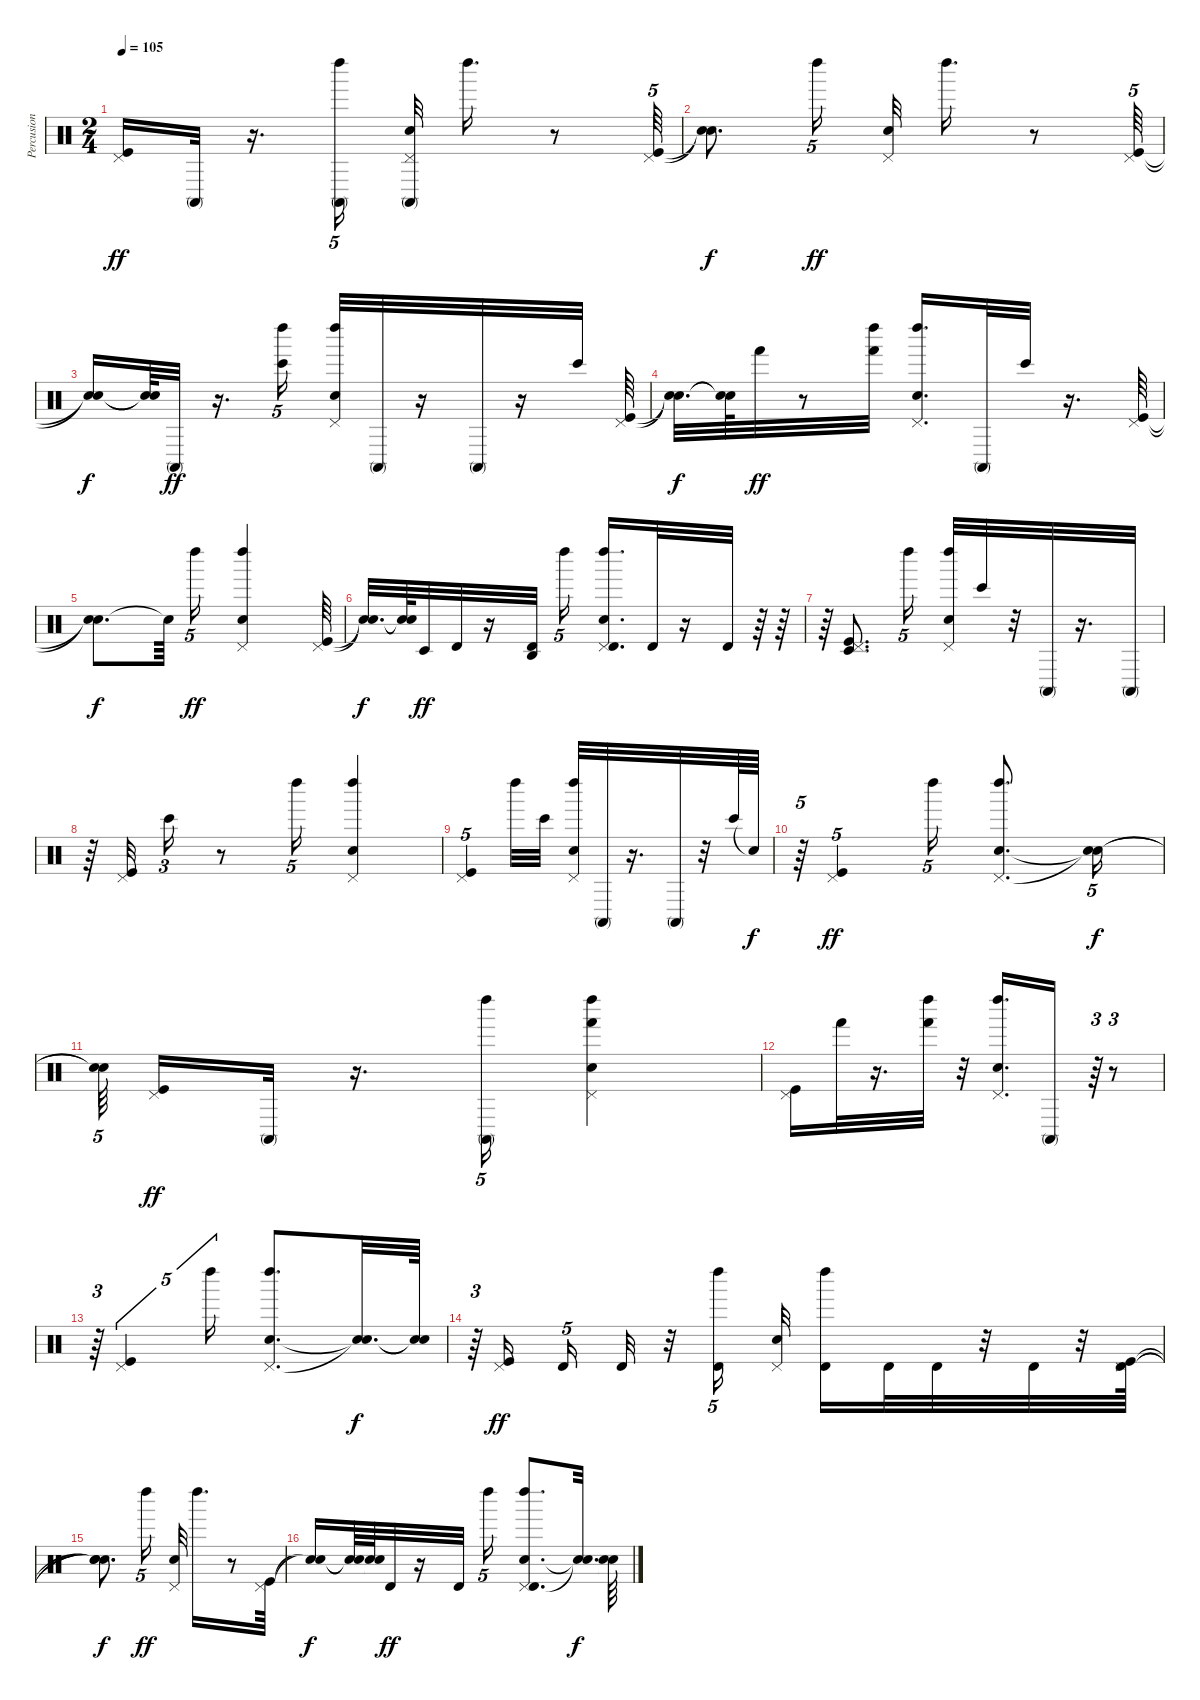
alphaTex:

\track ("Percusion" "Percusion") {instrument percussion}
\staff {score}
\articulation defaults
\ts (2 4)
\tempo 105
\clef neutral
\ks c
("Pedal Hi-Hat (hit)" "Kick (hit)").16{dy ff} "Conga high (mute)".32 r.16{d} ("Conga high (mute)" "Left Maraca (hit)").16{tu (5 4)} ("Pedal Hi-Hat (hit)" "Conga high (mute)" "Electric Snare (hit)").32 "Left Maraca (hit)".16{d} r.8 ("Kick (hit)" "Pedal Hi-Hat (hit)").64{tu (5 4)} |
("Snare (hit)"{t} "Snare (hit)"{t}).8{d dy f} "Left Maraca (hit)".16{tu (5 4) dy ff} ("Pedal Hi-Hat (hit)" "Electric Snare (hit)").32 "Left Maraca (hit)".16{d} r.8 ("Pedal Hi-Hat (hit)" "Kick (hit)").64{tu (5 4)} |
("Snare (hit)"{t} "Snare (hit)"{t}).16{dy f} ("Snare (hit)"{t} "Snare (hit)"{t}).64 "Conga high (mute)".32{dy ff} r.16{d} ("Bongo High (hit)" "Left Maraca (hit)").16{tu (5 4)} ("Electric Snare (hit)" "Pedal Hi-Hat (hit)" "Left Maraca (hit)").32 "Conga high (mute)".32 r.16 "Conga high (mute)".32 r.16 "Bongo High (hit)".32 ("Kick (hit)" "Pedal Hi-Hat (hit)").64 |
("Snare (hit)"{t} "Snare (hit)"{t}).32{d dy f} ("Snare (hit)"{t} "Snare (hit)"{t}).64 "Hand (hit)".32{dy ff} r.8 ("Left Maraca (hit)" "Hand (hit)").32 ("Pedal Hi-Hat (hit)" "Electric Snare (hit)" "Left Maraca (hit)").16{d} "Conga high (mute)".32 "Bongo High (hit)".32 r.16{d} ("Pedal Hi-Hat (hit)" "Kick (hit)").64 |
("Snare (hit)"{t} "Snare (hit)"{t}).8{d dy f} "Snare (hit)"{t}.64{beam splitsecondary} "Left Maraca (hit)".16{tu (5 4) dy ff} ("Electric Snare (hit)" "Pedal Hi-Hat (hit)" "Left Maraca (hit)").4 ("Kick (hit)" "Pedal Hi-Hat (hit)").64 |
("Snare (hit)"{t} "Snare (hit)"{t}).32{d dy f} ("Snare (hit)"{t} "Snare (hit)"{t}).64 "Timbale low (hit)".32{dy ff} "Timbale high (hit)".32 r.16 ("Timbale high (hit)" "Agogo high (hit)").32 "Left Maraca (hit)".16{tu (5 4)} ("Pedal Hi-Hat (hit)" "Electric Snare (hit)" "Left Maraca (hit)" "Timbale high (hit)").16{d} "Timbale high (hit)".32 r.16 "Timbale high (hit)".32 r.64 r.64 |
r.64 ("Kick (hit)" "Pedal Hi-Hat (hit)" "Timbale low (hit)").8{d} "Left Maraca (hit)".16{tu (5 4)} ("Electric Snare (hit)" "Pedal Hi-Hat (hit)" "Left Maraca (hit)").32 "Bongo High (hit)".32 r.32 "Conga high (mute)".32 r.16{d} "Conga high (mute)".32 |
r.64 ("Pedal Hi-Hat (hit)" "Kick (hit)").32 "Bongo High (hit)".16{tu (3 2)} r.8 "Left Maraca (hit)".16{tu (5 4)} ("Pedal Hi-Hat (hit)" "Electric Snare (hit)" "Left Maraca (hit)").4 |
("Kick (hit)" "Pedal Hi-Hat (hit)").4{tu (5 4)} "Left Maraca (hit)".32 "Bongo High (hit)".32 ("Electric Snare (hit)" "Pedal Hi-Hat (hit)" "Left Maraca (hit)").32 "Conga high (mute)".32 r.16{d} "Conga high (mute)".32 r.32 "Bongo High (hit)".64 "Snare (hit)"{t}.64{dy f} |
r.64{tu (5 4)} ("Pedal Hi-Hat (hit)" "Kick (hit)").4{tu (5 4) dy ff} "Left Maraca (hit)".16{tu (5 4)} ("Pedal Hi-Hat (hit)" "Electric Snare (hit)" "Left Maraca (hit)").8{d} ("Snare (hit)"{t} "Snare (hit)"{t}).16{tu (5 4) dy f} |
("Snare (hit)"{t} "Snare (hit)"{t}).64{tu (5 4) beam splitsecondary} ("Kick (hit)" "Pedal Hi-Hat (hit)").16{dy ff} "Conga high (mute)".32 r.16{d} ("Conga high (mute)" "Left Maraca (hit)").16{tu (5 4)} ("Electric Snare (hit)" "Hand (hit)" "Pedal Hi-Hat (hit)" "Left Maraca (hit)").4 |
("Pedal Hi-Hat (hit)" "Kick (hit)").16 "Hand (hit)".32 r.16{d} ("Left Maraca (hit)" "Hand (hit)").32 r.32 ("Electric Snare (hit)" "Pedal Hi-Hat (hit)" "Left Maraca (hit)").16{d} "Conga high (mute)".16 r.64{tu (3 2)} r.8{tu (3 2)} |
r.64{tu (3 2)} ("Kick (hit)" "Pedal Hi-Hat (hit)").4{tu (5 4)} "Left Maraca (hit)".16{tu (5 4)} ("Pedal Hi-Hat (hit)" "Electric Snare (hit)" "Left Maraca (hit)").8{d} ("Snare (hit)"{t} "Snare (hit)"{t}).32{d dy f} ("Snare (hit)"{t} "Snare (hit)"{t}).64 |
r.64{tu (3 2)} ("Kick (hit)" "Pedal Hi-Hat (hit)").16{dy ff beam splitsecondary} "Timbale high (hit)".16{tu (5 4)} "Timbale high (hit)".32 r.32 ("Timbale high (hit)" "Left Maraca (hit)").16{tu (5 4)} ("Pedal Hi-Hat (hit)" "Electric Snare (hit)").32 ("Left Maraca (hit)" "Timbale high (hit)").16 "Timbale high (hit)".32 "Timbale high (hit)".32 r.32 "Timbale high (hit)".32 r.32 ("Timbale high (hit)" "Pedal Hi-Hat (hit)" "Kick (hit)").64 |
("Snare (hit)"{t} "Snare (hit)"{t} "Snare (hit)"{t}).8{d dy f} "Left Maraca (hit)".16{tu (5 4) dy ff} ("Pedal Hi-Hat (hit)" "Electric Snare (hit)").32 "Left Maraca (hit)".16{d} r.8 ("Pedal Hi-Hat (hit)" "Kick (hit)").64 |
("Snare (hit)"{t} "Snare (hit)"{t}).16{dy f} ("Snare (hit)"{t} "Snare (hit)"{t}).64 ("Snare (hit)"{t} "Snare (hit)"{t}).64 "Timbale high (hit)".32{dy ff} r.16 "Timbale high (hit)".32 "Left Maraca (hit)".16{tu (5 4)} ("Electric Snare (hit)" "Pedal Hi-Hat (hit)" "Timbale high (hit)" "Left Maraca (hit)").8{d} ("Snare (hit)"{t} "Snare (hit)"{t}).32{d dy f} ("Snare (hit)"{t} "Snare (hit)"{t}).64
